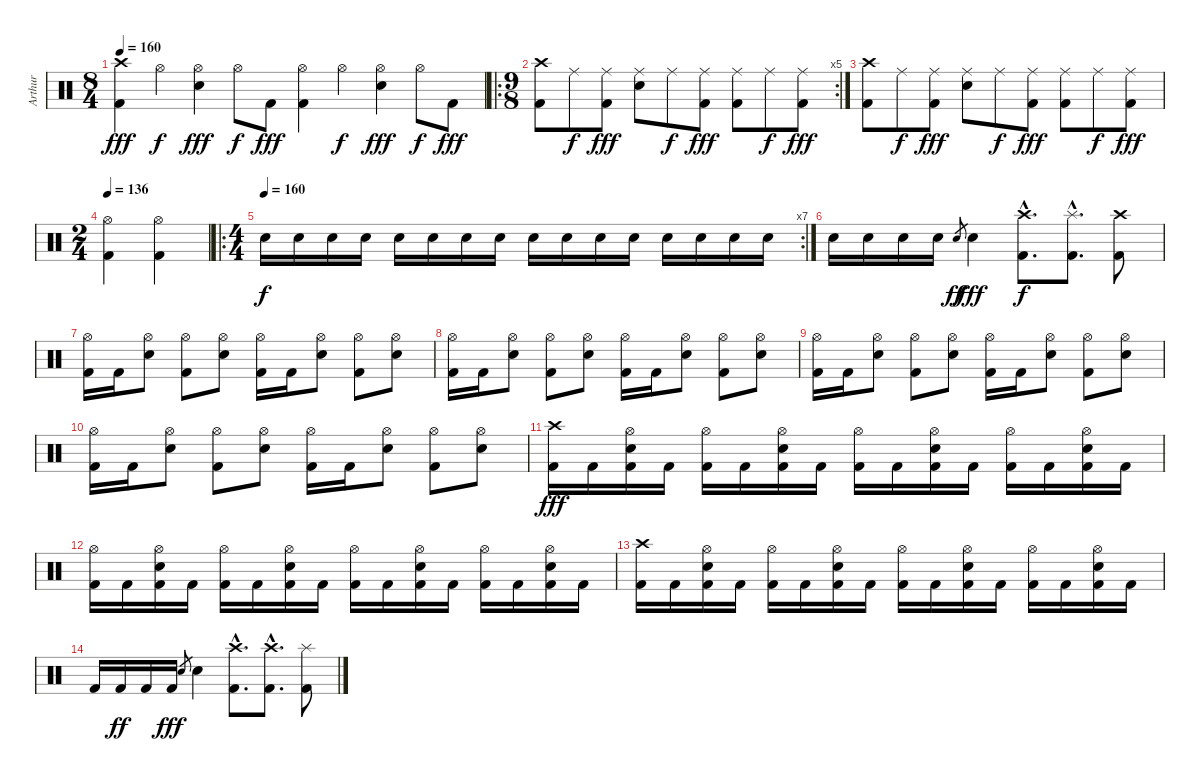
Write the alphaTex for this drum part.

\track ("Arthur" "Arthur") {instrument percussion}
\staff {score}
\articulation defaults
\ts (8 4)
\tempo 160
\clef neutral
\ks c
("Crash high (hit)" "Kick (hit) 2").4{dy fff} "Hi-Hat (open)".4{dy f} ("Hi-Hat (open)" "Electric Snare (hit)").4{dy fff} "Hi-Hat (open)".8{dy f} "Kick (hit) 2".8{dy fff} ("Hi-Hat (open)" "Kick (hit) 2").4 "Hi-Hat (open)".4{dy f} ("Hi-Hat (open)" "Electric Snare (hit)").4{dy fff} "Hi-Hat (open)".8{dy f} "Kick (hit) 2".8{dy fff} |
\ro
\rc 5
\ts (9 8)
("Crash high (hit)" "Kick (hit) 2").8 "Ride (middle)".8{dy f} ("Ride (middle)" "Kick (hit) 2").8{dy fff} ("Ride (middle)" "Electric Snare (hit)").8 "Ride (middle)".8{dy f} ("Ride (middle)" "Kick (hit) 2").8{dy fff} ("Ride (middle)" "Kick (hit) 2").8 "Ride (middle)".8{dy f} ("Ride (middle)" "Kick (hit) 2").8{dy fff} |
("Crash high (hit)" "Kick (hit) 2").8 "Ride (middle)".8{dy f} ("Ride (middle)" "Kick (hit) 2").8{dy fff} ("Ride (middle)" "Electric Snare (hit)").8 "Ride (middle)".8{dy f} ("Ride (middle)" "Kick (hit) 2").8{dy fff} ("Ride (middle)" "Kick (hit) 2").8 "Ride (middle)".8{dy f} ("Ride (middle)" "Kick (hit) 2").8{dy fff} |
\ts (2 4)
\tempo 136
("Hi-Hat (open)" "Kick (hit) 2").4 ("Hi-Hat (open)" "Kick (hit) 2").4 |
\ro
\rc 7
\ts (4 4)
\tempo (160)
"Electric Snare (hit)".16{dy f volume 7} "Electric Snare (hit)".16 "Electric Snare (hit)".16 "Electric Snare (hit)".16 "Electric Snare (hit)".16 "Electric Snare (hit)".16 "Electric Snare (hit)".16 "Electric Snare (hit)".16 "Electric Snare (hit)".16 "Electric Snare (hit)".16 "Electric Snare (hit)".16 "Electric Snare (hit)".16 "Electric Snare (hit)".16 "Electric Snare (hit)".16 "Electric Snare (hit)".16 "Electric Snare (hit)".16 |
"Electric Snare (hit)".16{volume 13} "Electric Snare (hit)".16 "Electric Snare (hit)".16 "Electric Snare (hit)".16 "Electric Snare (hit)".8{gr dy ff} "Electric Snare (hit)".4{dy fff} ("Crash high (hit)"{hac} "Kick (hit) 2"{hac}).8{d dy f} ("Splash (hit)"{hac} "Kick (hit) 2"{hac}).8{d} ("Crash high (hit)" "Kick (hit) 2").8 |
("Hi-Hat (open)" "Kick (hit) 2").16 "Kick (hit) 2".16 ("Hi-Hat (open)" "Electric Snare (hit)").8 ("Hi-Hat (open)" "Kick (hit) 2").8 ("Hi-Hat (open)" "Electric Snare (hit)").8 ("Hi-Hat (open)" "Kick (hit) 2").16 "Kick (hit) 2".16 ("Hi-Hat (open)" "Electric Snare (hit)").8 ("Hi-Hat (open)" "Kick (hit) 2").8 ("Hi-Hat (open)" "Electric Snare (hit)").8 |
("Hi-Hat (open)" "Kick (hit) 2").16 "Kick (hit) 2".16 ("Hi-Hat (open)" "Electric Snare (hit)").8 ("Hi-Hat (open)" "Kick (hit) 2").8 ("Hi-Hat (open)" "Electric Snare (hit)").8 ("Hi-Hat (open)" "Kick (hit) 2").16 "Kick (hit) 2".16 ("Hi-Hat (open)" "Electric Snare (hit)").8 ("Hi-Hat (open)" "Kick (hit) 2").8 ("Hi-Hat (open)" "Electric Snare (hit)").8 |
("Hi-Hat (open)" "Kick (hit) 2").16 "Kick (hit) 2".16 ("Hi-Hat (open)" "Electric Snare (hit)").8 ("Hi-Hat (open)" "Kick (hit) 2").8 ("Hi-Hat (open)" "Electric Snare (hit)").8 ("Hi-Hat (open)" "Kick (hit) 2").16 "Kick (hit) 2".16 ("Hi-Hat (open)" "Electric Snare (hit)").8 ("Hi-Hat (open)" "Kick (hit) 2").8 ("Hi-Hat (open)" "Electric Snare (hit)").8 |
("Hi-Hat (open)" "Kick (hit) 2").16 "Kick (hit) 2".16 ("Hi-Hat (open)" "Electric Snare (hit)").8 ("Hi-Hat (open)" "Kick (hit) 2").8 ("Hi-Hat (open)" "Electric Snare (hit)").8 ("Hi-Hat (open)" "Kick (hit) 2").16 "Kick (hit) 2".16 ("Hi-Hat (open)" "Electric Snare (hit)").8 ("Hi-Hat (open)" "Kick (hit) 2").8 ("Hi-Hat (open)" "Electric Snare (hit)").8 |
("Crash high (hit)" "Kick (hit) 2").16{dy fff} "Kick (hit) 2".16 ("Hi-Hat (open)" "Electric Snare (hit)" "Kick (hit) 2").16 "Kick (hit) 2".16 ("Hi-Hat (open)" "Kick (hit) 2").16 "Kick (hit) 2".16 ("Hi-Hat (open)" "Electric Snare (hit)" "Kick (hit) 2").16 "Kick (hit) 2".16 ("Hi-Hat (open)" "Kick (hit) 2").16 "Kick (hit) 2".16 ("Hi-Hat (open)" "Electric Snare (hit)" "Kick (hit) 2").16 "Kick (hit) 2".16 ("Hi-Hat (open)" "Kick (hit) 2").16 "Kick (hit) 2".16 ("Hi-Hat (open)" "Electric Snare (hit)" "Kick (hit) 2").16 "Kick (hit) 2".16 |
("Hi-Hat (open)" "Kick (hit) 2").16 "Kick (hit) 2".16 ("Hi-Hat (open)" "Electric Snare (hit)" "Kick (hit) 2").16 "Kick (hit) 2".16 ("Hi-Hat (open)" "Kick (hit) 2").16 "Kick (hit) 2".16 ("Hi-Hat (open)" "Electric Snare (hit)" "Kick (hit) 2").16 "Kick (hit) 2".16 ("Hi-Hat (open)" "Kick (hit) 2").16 "Kick (hit) 2".16 ("Hi-Hat (open)" "Electric Snare (hit)" "Kick (hit) 2").16 "Kick (hit) 2".16 ("Hi-Hat (open)" "Kick (hit) 2").16 "Kick (hit) 2".16 ("Hi-Hat (open)" "Electric Snare (hit)" "Kick (hit) 2").16 "Kick (hit) 2".16 |
("Crash high (hit)" "Kick (hit) 2").16 "Kick (hit) 2".16 ("Hi-Hat (open)" "Electric Snare (hit)" "Kick (hit) 2").16 "Kick (hit) 2".16 ("Hi-Hat (open)" "Kick (hit) 2").16 "Kick (hit) 2".16 ("Hi-Hat (open)" "Electric Snare (hit)" "Kick (hit) 2").16 "Kick (hit) 2".16 ("Hi-Hat (open)" "Kick (hit) 2").16 "Kick (hit) 2".16 ("Hi-Hat (open)" "Electric Snare (hit)" "Kick (hit) 2").16 "Kick (hit) 2".16 ("Hi-Hat (open)" "Kick (hit) 2").16 "Kick (hit) 2".16 ("Hi-Hat (open)" "Electric Snare (hit)" "Kick (hit) 2").16 "Kick (hit) 2".16 |
"Kick (hit) 2".16 "Kick (hit) 2".16{dy ff} "Kick (hit) 2".16 "Kick (hit) 2".16{dy fff} "Electric Snare (hit)".8{gr} "Electric Snare (hit)".4 ("Crash high (hit)"{hac} "Kick (hit) 2"{hac}).8{d} ("Crash high (hit)"{hac} "Kick (hit) 2"{hac}).8{d} ("Splash (hit)" "Kick (hit) 2").8
